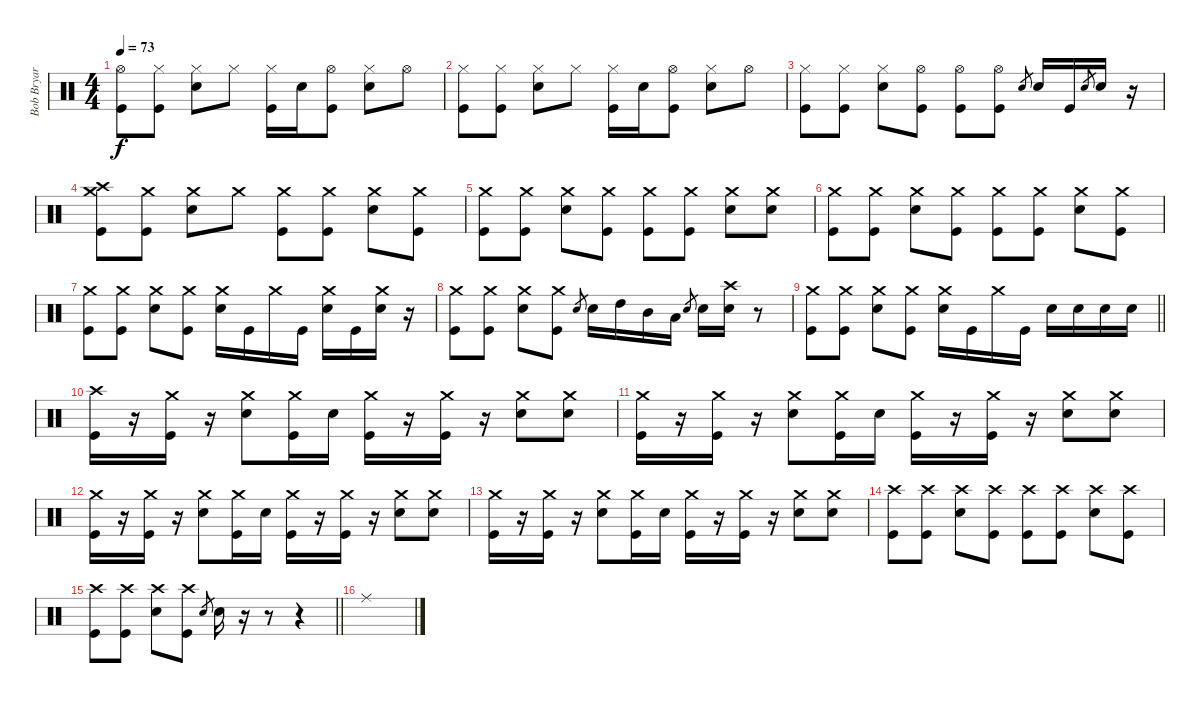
\track ("Bob Bryar [Drums]" "Bob Bryar ") {instrument percussion}
\staff {score}
\articulation defaults
\ts (4 4)
\tempo 73
\clef neutral
\ks c
("Hi-Hat (open)" "Kick (hit)").8{dy f} ("Hi-Hat (closed)" "Kick (hit)").8 ("Hi-Hat (closed)" "Snare (hit) 2").8 "Hi-Hat (closed)".8 ("Hi-Hat (closed)" "Kick (hit)").16 "Snare (hit) 2".16 ("Hi-Hat (open)" "Kick (hit)").8 ("Hi-Hat (closed)" "Snare (hit) 2").8 "Hi-Hat (open)".8 |
("Hi-Hat (closed)" "Kick (hit)").8 ("Hi-Hat (closed)" "Kick (hit)").8 ("Hi-Hat (closed)" "Snare (hit) 2").8 "Hi-Hat (closed)".8 ("Hi-Hat (closed)" "Kick (hit)").16 "Snare (hit) 2".16 ("Hi-Hat (open)" "Kick (hit)").8 ("Hi-Hat (closed)" "Snare (hit) 2").8 "Hi-Hat (open)".8 |
("Hi-Hat (closed)" "Kick (hit)").8 ("Hi-Hat (closed)" "Kick (hit)").8 ("Hi-Hat (closed)" "Snare (hit) 2").8 ("Hi-Hat (open)" "Kick (hit)").8 ("Hi-Hat (open)" "Kick (hit)").8 ("Hi-Hat (open)" "Kick (hit)").8 "Snare (hit) 2".8{gr} "Snare (hit) 2".16 "Kick (hit)".16 "Snare (hit) 2".8{gr} "Snare (hit) 2".16 r.16 |
("Crash medium (hit)" "Crash high (hit)" "Kick (hit)").8 ("Crash medium (hit)" "Kick (hit)").8 ("Crash medium (hit)" "Snare (hit) 2").8 "Crash medium (hit)".8 ("Crash medium (hit)" "Kick (hit)").8 ("Crash medium (hit)" "Kick (hit)").8 ("Crash medium (hit)" "Snare (hit) 2").8 ("Crash medium (hit)" "Kick (hit)").8 |
("Crash medium (hit)" "Kick (hit)").8 ("Crash medium (hit)" "Kick (hit)").8 ("Crash medium (hit)" "Snare (hit) 2").8 ("Crash medium (hit)" "Kick (hit)").8 ("Crash medium (hit)" "Kick (hit)").8 ("Crash medium (hit)" "Kick (hit)").8 ("Crash medium (hit)" "Snare (hit) 2").8 ("Crash medium (hit)" "Snare (hit) 2").8 |
("Crash medium (hit)" "Kick (hit)").8 ("Crash medium (hit)" "Kick (hit)").8 ("Crash medium (hit)" "Snare (hit) 2").8 ("Crash medium (hit)" "Kick (hit)").8 ("Crash medium (hit)" "Kick (hit)").8 ("Crash medium (hit)" "Kick (hit)").8 ("Crash medium (hit)" "Snare (hit) 2").8 ("Crash medium (hit)" "Kick (hit)").8 |
("Crash medium (hit)" "Kick (hit)").8 ("Crash medium (hit)" "Kick (hit)").8 ("Crash medium (hit)" "Snare (hit) 2").8 ("Crash medium (hit)" "Kick (hit)").8 ("Crash medium (hit)" "Snare (hit) 2").16 "Kick (hit)".16 "Crash medium (hit)".16 "Kick (hit)".16 ("Crash medium (hit)" "Snare (hit) 2").16 "Kick (hit)".16 ("Crash medium (hit)" "Snare (hit) 2").16 r.16 |
("Crash medium (hit)" "Kick (hit)").8 ("Crash medium (hit)" "Kick (hit)").8 ("Crash medium (hit)" "Snare (hit) 2").8 ("Crash medium (hit)" "Kick (hit)").8 "Snare (hit) 2".8{gr} "Snare (hit) 2".16 "High Tom (hit)".16 "Mid Tom (hit)".16 "Low Tom (hit)".16 "Snare (hit) 2".8{gr} "Snare (hit) 2".16 ("Crash high (hit)" "Snare (hit) 2").16 r.8 |
\barLineRight lightlight
("Crash medium (hit)" "Kick (hit)").8 ("Crash medium (hit)" "Kick (hit)").8 ("Crash medium (hit)" "Snare (hit) 2").8 ("Crash medium (hit)" "Kick (hit)").8 ("Crash medium (hit)" "Snare (hit) 2").16 "Kick (hit)".16 "Crash medium (hit)".16 "Kick (hit)".16 "Snare (hit) 2".16 "Snare (hit) 2".16 "Snare (hit) 2".16 "Snare (hit) 2".16 |
("Crash high (hit)" "Kick (hit)").16 r.16 ("Crash medium (hit)" "Kick (hit)").16 r.16 ("Crash medium (hit)" "Snare (hit) 2").8 ("Crash medium (hit)" "Kick (hit)").16 "Snare (hit) 2".16 ("Crash medium (hit)" "Kick (hit)").16 r.16 ("Crash medium (hit)" "Kick (hit)").16 r.16 ("Crash medium (hit)" "Snare (hit) 2").8 ("Crash medium (hit)" "Snare (hit) 2").8 |
("Crash medium (hit)" "Kick (hit)").16 r.16 ("Crash medium (hit)" "Kick (hit)").16 r.16 ("Crash medium (hit)" "Snare (hit) 2").8 ("Crash medium (hit)" "Kick (hit)").16 "Snare (hit) 2".16 ("Crash medium (hit)" "Kick (hit)").16 r.16 ("Crash medium (hit)" "Kick (hit)").16 r.16 ("Crash medium (hit)" "Snare (hit) 2").8 ("Crash medium (hit)" "Snare (hit) 2").8 |
("Crash medium (hit)" "Kick (hit)").16 r.16 ("Crash medium (hit)" "Kick (hit)").16 r.16 ("Crash medium (hit)" "Snare (hit) 2").8 ("Crash medium (hit)" "Kick (hit)").16 "Snare (hit) 2".16 ("Crash medium (hit)" "Kick (hit)").16 r.16 ("Crash medium (hit)" "Kick (hit)").16 r.16 ("Crash medium (hit)" "Snare (hit) 2").8 ("Crash medium (hit)" "Snare (hit) 2").8 |
("Crash medium (hit)" "Kick (hit)").16 r.16 ("Crash medium (hit)" "Kick (hit)").16 r.16 ("Crash medium (hit)" "Snare (hit) 2").8 ("Crash medium (hit)" "Kick (hit)").16 "Snare (hit) 2".16 ("Crash medium (hit)" "Kick (hit)").16 r.16 ("Crash medium (hit)" "Kick (hit)").16 r.16 ("Crash medium (hit)" "Snare (hit) 2").8 ("Crash medium (hit)" "Snare (hit) 2").8 |
("Crash high (hit)" "Kick (hit)").8 ("Crash high (hit)" "Kick (hit)").8 ("Crash high (hit)" "Snare (hit) 2").8 ("Crash high (hit)" "Kick (hit)").8 ("Crash high (hit)" "Kick (hit)").8 ("Crash high (hit)" "Kick (hit)").8 ("Crash high (hit)" "Snare (hit) 2").8 ("Crash high (hit)" "Kick (hit)").8 |
\barLineRight lightlight
("Crash high (hit)" "Kick (hit)").8 ("Crash high (hit)" "Kick (hit)").8 ("Crash high (hit)" "Snare (hit) 2").8 ("Crash high (hit)" "Kick (hit)").8 "Snare (hit) 2".8{gr} "Snare (hit) 2".16 r.16 r.8 r.4 |
"Ride (middle)".1
